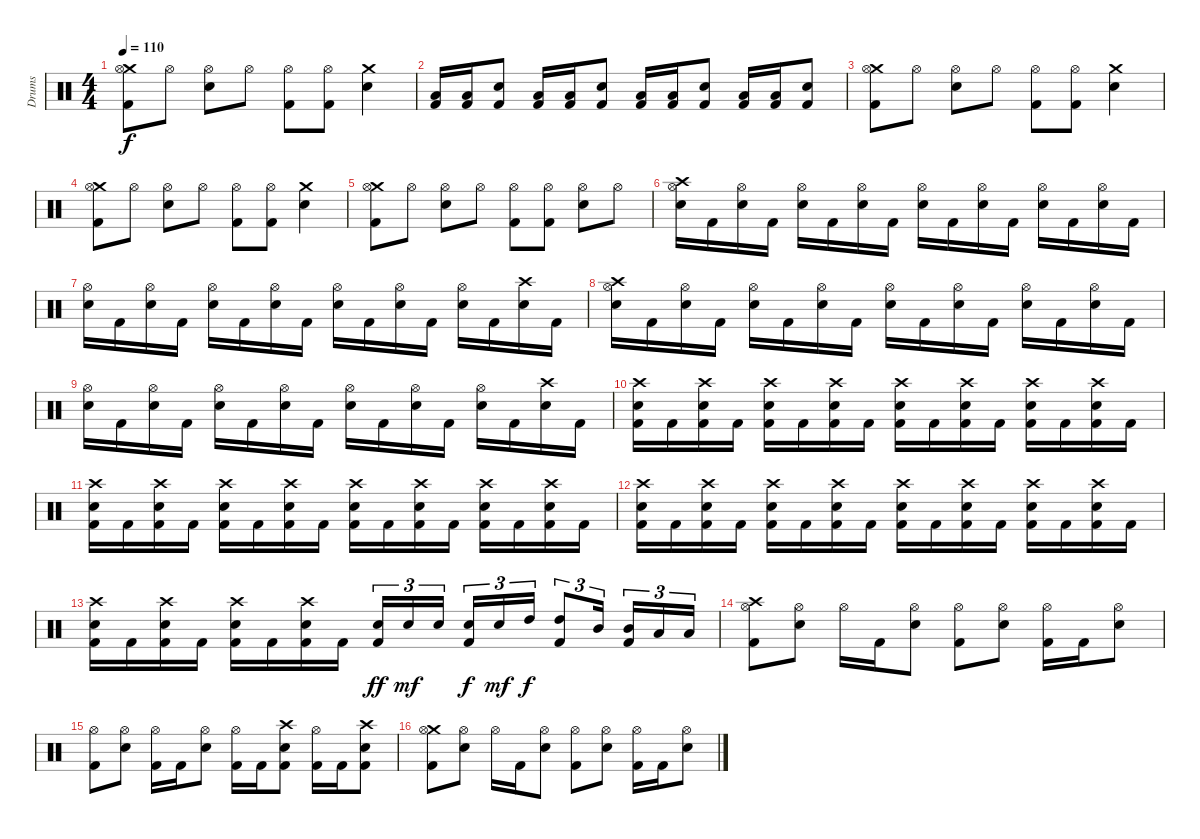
\track ("Drums" "Drums") {instrument percussion}
\staff {score}
\articulation defaults
\ts (4 4)
\tempo 110
\clef neutral
\ks c
("Crash medium (hit)" "Hi-Hat (open)" "Kick (hit) 2").8{dy f} "Hi-Hat (open)".8 ("Hi-Hat (open)" "Electric Snare (hit)").8 "Hi-Hat (open)".8 ("Hi-Hat (open)" "Kick (hit) 2").8 ("Hi-Hat (open)" "Kick (hit) 2").8 ("Crash medium (hit)" "Electric Snare (hit)").4 |
("Low Floor Tom (hit)" "Kick (hit) 2").16 ("Low Floor Tom (hit)" "Kick (hit) 2").16 ("Electric Snare (hit)" "Kick (hit) 2").8 ("Low Floor Tom (hit)" "Kick (hit) 2").16 ("Low Floor Tom (hit)" "Kick (hit) 2").16 ("Electric Snare (hit)" "Kick (hit) 2").8 ("Low Floor Tom (hit)" "Kick (hit) 2").16 ("Low Floor Tom (hit)" "Kick (hit) 2").16 ("Electric Snare (hit)" "Kick (hit) 2").8 ("Low Floor Tom (hit)" "Kick (hit) 2").16 ("Low Floor Tom (hit)" "Kick (hit) 2").16 ("Electric Snare (hit)" "Kick (hit) 2").8 |
("Crash medium (hit)" "Hi-Hat (open)" "Kick (hit) 2").8 "Hi-Hat (open)".8 ("Hi-Hat (open)" "Electric Snare (hit)").8 "Hi-Hat (open)".8 ("Hi-Hat (open)" "Kick (hit) 2").8 ("Hi-Hat (open)" "Kick (hit) 2").8 ("Crash medium (hit)" "Electric Snare (hit)").4 |
("Crash medium (hit)" "Hi-Hat (open)" "Kick (hit) 2").8 "Hi-Hat (open)".8 ("Hi-Hat (open)" "Electric Snare (hit)").8 "Hi-Hat (open)".8 ("Hi-Hat (open)" "Kick (hit) 2").8 ("Hi-Hat (open)" "Kick (hit) 2").8 ("Crash medium (hit)" "Electric Snare (hit)").4 |
("Crash medium (hit)" "Hi-Hat (open)" "Kick (hit) 2").8 "Hi-Hat (open)".8 ("Hi-Hat (open)" "Electric Snare (hit)").8 "Hi-Hat (open)".8 ("Hi-Hat (open)" "Kick (hit) 2").8 ("Hi-Hat (open)" "Kick (hit) 2").8 ("Hi-Hat (open)" "Electric Snare (hit)").8 "Hi-Hat (open)".8 |
("Crash high (hit)" "Hi-Hat (open)" "Electric Snare (hit)").16 "Kick (hit) 2".16 ("Hi-Hat (open)" "Electric Snare (hit)").16 "Kick (hit) 2".16 ("Hi-Hat (open)" "Electric Snare (hit)").16 "Kick (hit) 2".16 ("Hi-Hat (open)" "Electric Snare (hit)").16 "Kick (hit) 2".16 ("Hi-Hat (open)" "Electric Snare (hit)").16 "Kick (hit) 2".16 ("Hi-Hat (open)" "Electric Snare (hit)").16 "Kick (hit) 2".16 ("Hi-Hat (open)" "Electric Snare (hit)").16 "Kick (hit) 2".16 ("Hi-Hat (open)" "Electric Snare (hit)").16 "Kick (hit) 2".16 |
("Hi-Hat (open)" "Electric Snare (hit)").16 "Kick (hit) 2".16 ("Hi-Hat (open)" "Electric Snare (hit)").16 "Kick (hit) 2".16 ("Hi-Hat (open)" "Electric Snare (hit)").16 "Kick (hit) 2".16 ("Hi-Hat (open)" "Electric Snare (hit)").16 "Kick (hit) 2".16 ("Hi-Hat (open)" "Electric Snare (hit)").16 "Kick (hit) 2".16 ("Hi-Hat (open)" "Electric Snare (hit)").16 "Kick (hit) 2".16 ("Hi-Hat (open)" "Electric Snare (hit)").16 "Kick (hit) 2".16 ("Crash high (hit)" "Electric Snare (hit)").16 "Kick (hit) 2".16 |
("Crash high (hit)" "Hi-Hat (open)" "Electric Snare (hit)").16 "Kick (hit) 2".16 ("Hi-Hat (open)" "Electric Snare (hit)").16 "Kick (hit) 2".16 ("Hi-Hat (open)" "Electric Snare (hit)").16 "Kick (hit) 2".16 ("Hi-Hat (open)" "Electric Snare (hit)").16 "Kick (hit) 2".16 ("Hi-Hat (open)" "Electric Snare (hit)").16 "Kick (hit) 2".16 ("Hi-Hat (open)" "Electric Snare (hit)").16 "Kick (hit) 2".16 ("Hi-Hat (open)" "Electric Snare (hit)").16 "Kick (hit) 2".16 ("Hi-Hat (open)" "Electric Snare (hit)").16 "Kick (hit) 2".16 |
("Hi-Hat (open)" "Electric Snare (hit)").16 "Kick (hit) 2".16 ("Hi-Hat (open)" "Electric Snare (hit)").16 "Kick (hit) 2".16 ("Hi-Hat (open)" "Electric Snare (hit)").16 "Kick (hit) 2".16 ("Hi-Hat (open)" "Electric Snare (hit)").16 "Kick (hit) 2".16 ("Hi-Hat (open)" "Electric Snare (hit)").16 "Kick (hit) 2".16 ("Hi-Hat (open)" "Electric Snare (hit)").16 "Kick (hit) 2".16 ("Hi-Hat (open)" "Electric Snare (hit)").16 "Kick (hit) 2".16 ("Crash high (hit)" "Electric Snare (hit)").16 "Kick (hit) 2".16 |
("Crash high (hit)" "Electric Snare (hit)" "Kick (hit) 2").16 "Kick (hit) 2".16 ("Crash high (hit)" "Electric Snare (hit)" "Kick (hit) 2").16 "Kick (hit) 2".16 ("Crash high (hit)" "Electric Snare (hit)" "Kick (hit) 2").16 "Kick (hit) 2".16 ("Crash high (hit)" "Electric Snare (hit)" "Kick (hit) 2").16 "Kick (hit) 2".16 ("Crash high (hit)" "Electric Snare (hit)" "Kick (hit) 2").16 "Kick (hit) 2".16 ("Crash high (hit)" "Electric Snare (hit)" "Kick (hit) 2").16 "Kick (hit) 2".16 ("Crash high (hit)" "Electric Snare (hit)" "Kick (hit) 2").16 "Kick (hit) 2".16 ("Crash high (hit)" "Electric Snare (hit)" "Kick (hit) 2").16 "Kick (hit) 2".16 |
("Crash high (hit)" "Electric Snare (hit)" "Kick (hit) 2").16 "Kick (hit) 2".16 ("Crash high (hit)" "Electric Snare (hit)" "Kick (hit) 2").16 "Kick (hit) 2".16 ("Crash high (hit)" "Electric Snare (hit)" "Kick (hit) 2").16 "Kick (hit) 2".16 ("Crash high (hit)" "Electric Snare (hit)" "Kick (hit) 2").16 "Kick (hit) 2".16 ("Crash high (hit)" "Electric Snare (hit)" "Kick (hit) 2").16 "Kick (hit) 2".16 ("Crash high (hit)" "Electric Snare (hit)" "Kick (hit) 2").16 "Kick (hit) 2".16 ("Crash high (hit)" "Electric Snare (hit)" "Kick (hit) 2").16 "Kick (hit) 2".16 ("Crash high (hit)" "Electric Snare (hit)" "Kick (hit) 2").16 "Kick (hit) 2".16 |
("Crash high (hit)" "Electric Snare (hit)" "Kick (hit) 2").16 "Kick (hit) 2".16 ("Crash high (hit)" "Electric Snare (hit)" "Kick (hit) 2").16 "Kick (hit) 2".16 ("Crash high (hit)" "Electric Snare (hit)" "Kick (hit) 2").16 "Kick (hit) 2".16 ("Crash high (hit)" "Electric Snare (hit)" "Kick (hit) 2").16 "Kick (hit) 2".16 ("Crash high (hit)" "Electric Snare (hit)" "Kick (hit) 2").16 "Kick (hit) 2".16 ("Crash high (hit)" "Electric Snare (hit)" "Kick (hit) 2").16 "Kick (hit) 2".16 ("Crash high (hit)" "Electric Snare (hit)" "Kick (hit) 2").16 "Kick (hit) 2".16 ("Crash high (hit)" "Electric Snare (hit)" "Kick (hit) 2").16 "Kick (hit) 2".16 |
("Crash high (hit)" "Electric Snare (hit)" "Kick (hit) 2").16 "Kick (hit) 2".16 ("Crash high (hit)" "Electric Snare (hit)" "Kick (hit) 2").16 "Kick (hit) 2".16 ("Crash high (hit)" "Electric Snare (hit)" "Kick (hit) 2").16 "Kick (hit) 2".16 ("Crash high (hit)" "Electric Snare (hit)" "Kick (hit) 2").16 "Kick (hit) 2".16 ("Electric Snare (hit)" "Kick (hit) 2").16{tu (3 2) dy ff} "Electric Snare (hit)".16{tu (3 2) dy mf} "Electric Snare (hit)".16{tu (3 2)} ("Electric Snare (hit)" "Kick (hit) 2").16{tu (3 2) dy f} "Electric Snare (hit)".16{tu (3 2) dy mf} "High Tom (hit)".16{tu (3 2) dy f} ("High Tom (hit)" "Kick (hit) 2").8{tu (3 2)} "Mid Tom (hit)".16{tu (3 2)} ("Mid Tom (hit)" "Kick (hit) 2").16{tu (3 2)} "Low Tom (hit)".16{tu (3 2)} "Low Tom (hit)".16{tu (3 2)} |
("Crash high (hit)" "Hi-Hat (open)" "Kick (hit) 2").8 ("Hi-Hat (open)" "Electric Snare (hit)").8 "Hi-Hat (open)".16 "Kick (hit) 2".16 ("Hi-Hat (open)" "Electric Snare (hit)").8 ("Hi-Hat (open)" "Kick (hit) 2").8 ("Hi-Hat (open)" "Electric Snare (hit)").8 ("Hi-Hat (open)" "Kick (hit) 2").16 "Kick (hit) 2".16 ("Hi-Hat (open)" "Electric Snare (hit)").8 |
("Hi-Hat (open)" "Kick (hit) 2").8 ("Hi-Hat (open)" "Electric Snare (hit)").8 ("Hi-Hat (open)" "Kick (hit) 2").16 "Kick (hit) 2".16 ("Hi-Hat (open)" "Electric Snare (hit)").8 ("Hi-Hat (open)" "Kick (hit) 2").16 "Kick (hit) 2".16 ("Crash high (hit)" "Electric Snare (hit)" "Kick (hit) 2").8 ("Hi-Hat (open)" "Kick (hit) 2").16 "Kick (hit) 2".16 ("Crash high (hit)" "Electric Snare (hit)" "Kick (hit) 2").8 |
("Crash medium (hit)" "Hi-Hat (open)" "Kick (hit) 2").8 ("Hi-Hat (open)" "Electric Snare (hit)").8 "Hi-Hat (open)".16 "Kick (hit) 2".16 ("Hi-Hat (open)" "Electric Snare (hit)").8 ("Hi-Hat (open)" "Kick (hit) 2").8 ("Hi-Hat (open)" "Electric Snare (hit)").8 ("Hi-Hat (open)" "Kick (hit) 2").16 "Kick (hit) 2".16 ("Hi-Hat (open)" "Electric Snare (hit)").8
